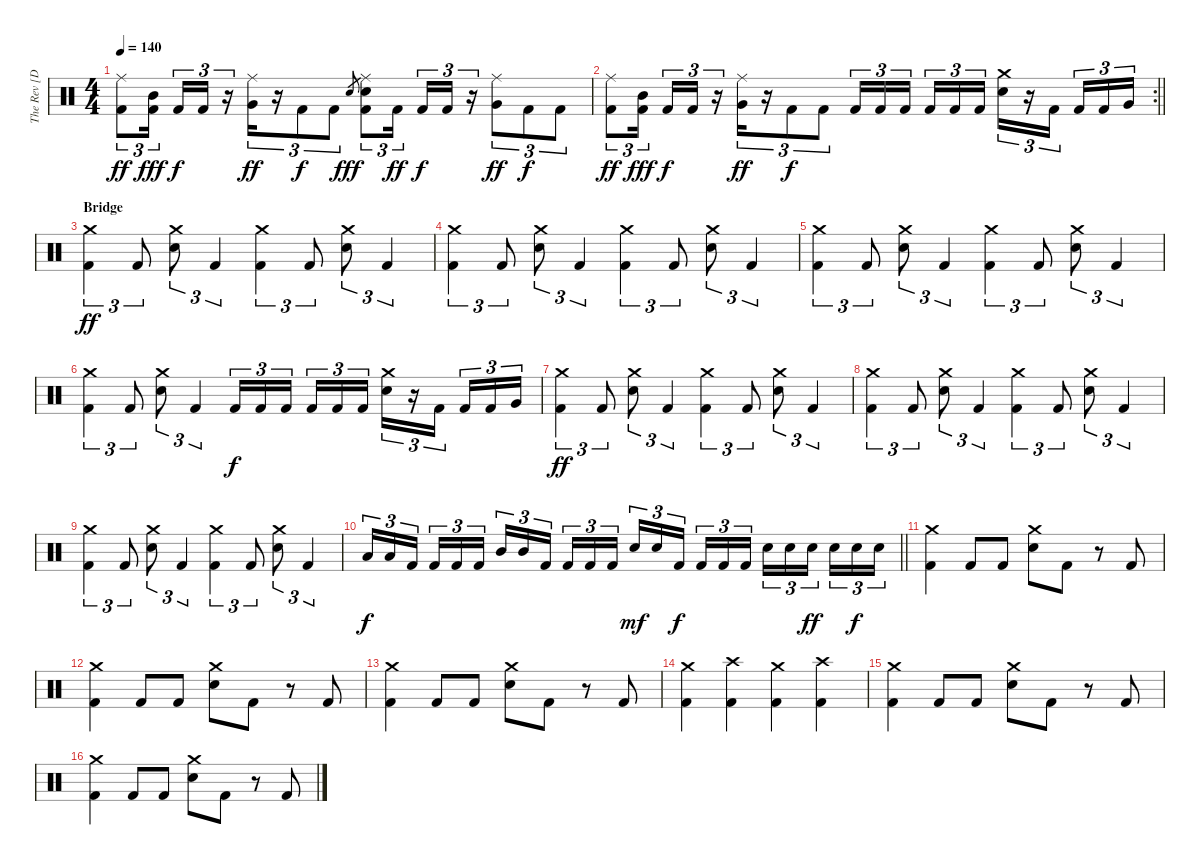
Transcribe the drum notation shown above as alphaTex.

\track ("The Rev [Drum]" "The Rev [D") {instrument percussion}
\staff {score}
\articulation defaults
\ts (4 4)
\tempo 140
\clef neutral
\ks c
("Ride (middle)" "Kick (hit) 2").8{tu (3 2) dy ff} ("Mid Tom (hit)" "Kick (hit) 2").16{tu (3 2) dy fff beam splitsecondary} "Kick (hit) 2".16{tu (3 2) dy f} "Kick (hit) 2".16{tu (3 2)} r.16{tu (3 2)} ("Ride (middle)" "Very Low Tom (hit)").16{tu (3 2) dy ff} r.16{tu (3 2)} "Kick (hit) 2".8{tu (3 2) dy f} "Kick (hit) 2".8{tu (3 2)} "Snare (hit) 2".8{gr dy fff} ("Ride (middle)" "Snare (hit) 2" "Kick (hit) 2").8{tu (3 2)} "Kick (hit) 2".16{tu (3 2) dy ff beam splitsecondary} "Kick (hit) 2".16{tu (3 2) dy f} "Kick (hit) 2".16{tu (3 2)} r.16{tu (3 2)} ("Ride (middle)" "Very Low Tom (hit)").8{tu (3 2) dy ff} "Kick (hit) 2".8{tu (3 2) dy f} "Kick (hit) 2".8{tu (3 2)} |
\rc 2
\barLineRight lightlight
("Ride (middle)" "Kick (hit) 2").8{tu (3 2) dy ff} ("Mid Tom (hit)" "Kick (hit) 2").16{tu (3 2) dy fff beam splitsecondary} "Kick (hit) 2".16{tu (3 2) dy f} "Kick (hit) 2".16{tu (3 2)} r.16{tu (3 2)} ("Ride (middle)" "Very Low Tom (hit)").16{tu (3 2) dy ff} r.16{tu (3 2)} "Kick (hit) 2".8{tu (3 2) dy f} "Kick (hit) 2".8{tu (3 2)} "Kick (hit) 2".16{tu (3 2)} "Kick (hit) 2".16{tu (3 2)} "Kick (hit) 2".16{tu (3 2) beam splitsecondary} "Kick (hit) 2".16{tu (3 2)} "Kick (hit) 2".16{tu (3 2)} "Kick (hit) 2".16{tu (3 2)} ("Crash medium (hit)" "Snare (hit) 2").16{tu (3 2)} r.16{tu (3 2)} "Kick (hit) 2".16{tu (3 2) beam splitsecondary} "Kick (hit) 2".16{tu (3 2)} "Kick (hit) 2".16{tu (3 2)} "Very Low Tom (hit)".16{tu (3 2)} |
\section ("" "Bridge")
("Crash medium (hit)" "Kick (hit) 2").4{tu (3 2) dy ff} "Kick (hit) 2".8{tu (3 2)} ("Crash medium (hit)" "Snare (hit) 2").8{tu (3 2)} "Kick (hit) 2".4{tu (3 2)} ("Crash medium (hit)" "Kick (hit) 2").4{tu (3 2)} "Kick (hit) 2".8{tu (3 2)} ("Crash medium (hit)" "Snare (hit) 2").8{tu (3 2)} "Kick (hit) 2".4{tu (3 2)} |
("Crash medium (hit)" "Kick (hit) 2").4{tu (3 2)} "Kick (hit) 2".8{tu (3 2)} ("Crash medium (hit)" "Snare (hit) 2").8{tu (3 2)} "Kick (hit) 2".4{tu (3 2)} ("Crash medium (hit)" "Kick (hit) 2").4{tu (3 2)} "Kick (hit) 2".8{tu (3 2)} ("Crash medium (hit)" "Snare (hit) 2").8{tu (3 2)} "Kick (hit) 2".4{tu (3 2)} |
("Crash medium (hit)" "Kick (hit) 2").4{tu (3 2)} "Kick (hit) 2".8{tu (3 2)} ("Crash medium (hit)" "Snare (hit) 2").8{tu (3 2)} "Kick (hit) 2".4{tu (3 2)} ("Crash medium (hit)" "Kick (hit) 2").4{tu (3 2)} "Kick (hit) 2".8{tu (3 2)} ("Crash medium (hit)" "Snare (hit) 2").8{tu (3 2)} "Kick (hit) 2".4{tu (3 2)} |
("Crash medium (hit)" "Kick (hit) 2").4{tu (3 2)} "Kick (hit) 2".8{tu (3 2)} ("Crash medium (hit)" "Snare (hit) 2").8{tu (3 2)} "Kick (hit) 2".4{tu (3 2)} "Kick (hit) 2".16{tu (3 2) dy f} "Kick (hit) 2".16{tu (3 2)} "Kick (hit) 2".16{tu (3 2) beam splitsecondary} "Kick (hit) 2".16{tu (3 2)} "Kick (hit) 2".16{tu (3 2)} "Kick (hit) 2".16{tu (3 2)} ("Crash medium (hit)" "Snare (hit) 2").16{tu (3 2)} r.16{tu (3 2)} "Kick (hit) 2".16{tu (3 2) beam splitsecondary} "Kick (hit) 2".16{tu (3 2)} "Kick (hit) 2".16{tu (3 2)} "Very Low Tom (hit)".16{tu (3 2)} |
("Crash medium (hit)" "Kick (hit) 2").4{tu (3 2) dy ff} "Kick (hit) 2".8{tu (3 2)} ("Crash medium (hit)" "Snare (hit) 2").8{tu (3 2)} "Kick (hit) 2".4{tu (3 2)} ("Crash medium (hit)" "Kick (hit) 2").4{tu (3 2)} "Kick (hit) 2".8{tu (3 2)} ("Crash medium (hit)" "Snare (hit) 2").8{tu (3 2)} "Kick (hit) 2".4{tu (3 2)} |
("Crash medium (hit)" "Kick (hit) 2").4{tu (3 2)} "Kick (hit) 2".8{tu (3 2)} ("Crash medium (hit)" "Snare (hit) 2").8{tu (3 2)} "Kick (hit) 2".4{tu (3 2)} ("Crash medium (hit)" "Kick (hit) 2").4{tu (3 2)} "Kick (hit) 2".8{tu (3 2)} ("Crash medium (hit)" "Snare (hit) 2").8{tu (3 2)} "Kick (hit) 2".4{tu (3 2)} |
("Crash medium (hit)" "Kick (hit) 2").4{tu (3 2)} "Kick (hit) 2".8{tu (3 2)} ("Crash medium (hit)" "Snare (hit) 2").8{tu (3 2)} "Kick (hit) 2".4{tu (3 2)} ("Crash medium (hit)" "Kick (hit) 2").4{tu (3 2)} "Kick (hit) 2".8{tu (3 2)} ("Crash medium (hit)" "Snare (hit) 2").8{tu (3 2)} "Kick (hit) 2".4{tu (3 2)} |
\barLineRight lightlight "Low Tom (hit)".16{tu (3 2) dy f} "Low Tom (hit)".16{tu (3 2)} "Kick (hit) 2".16{tu (3 2) beam splitsecondary} "Kick (hit) 2".16{tu (3 2)} "Kick (hit) 2".16{tu (3 2)} "Kick (hit) 2".16{tu (3 2)} "Mid Tom (hit)".16{tu (3 2)} "Mid Tom (hit)".16{tu (3 2)} "Kick (hit) 2".16{tu (3 2) beam splitsecondary} "Kick (hit) 2".16{tu (3 2)} "Kick (hit) 2".16{tu (3 2)} "Kick (hit) 2".16{tu (3 2)} "Snare (hit) 2".16{tu (3 2) dy mf} "Snare (hit) 2".16{tu (3 2)} "Kick (hit) 2".16{tu (3 2) dy f beam splitsecondary} "Kick (hit) 2".16{tu (3 2)} "Kick (hit) 2".16{tu (3 2)} "Kick (hit) 2".16{tu (3 2)} "Snare (hit) 2".16{tu (3 2)} "Snare (hit) 2".16{tu (3 2)} "Snare (hit) 2".16{tu (3 2) dy ff beam splitsecondary} "Snare (hit) 2".16{tu (3 2)} "Snare (hit) 2".16{tu (3 2) dy f} "Snare (hit) 2".16{tu (3 2)}
|
("Crash medium (hit)" "Kick (hit) 2").4 "Kick (hit) 2".8 "Kick (hit) 2".8 ("Crash medium (hit)" "Snare (hit) 2").8 "Kick (hit) 2".8 r.8 "Kick (hit) 2".8 |
("Crash medium (hit)" "Kick (hit) 2").4 "Kick (hit) 2".8 "Kick (hit) 2".8 ("Crash medium (hit)" "Snare (hit) 2").8 "Kick (hit) 2".8 r.8 "Kick (hit) 2".8 |
("Crash medium (hit)" "Kick (hit) 2").4 "Kick (hit) 2".8 "Kick (hit) 2".8 ("Crash medium (hit)" "Snare (hit) 2").8 "Kick (hit) 2".8 r.8 "Kick (hit) 2".8 |
("Crash medium (hit)" "Kick (hit) 2").4 ("Crash high (hit)" "Kick (hit) 2").4 ("Crash medium (hit)" "Kick (hit) 2").4 ("Crash high (hit)" "Kick (hit) 2").4 |
("Crash medium (hit)" "Kick (hit) 2").4 "Kick (hit) 2".8 "Kick (hit) 2".8 ("Crash medium (hit)" "Snare (hit) 2").8 "Kick (hit) 2".8 r.8 "Kick (hit) 2".8 |
("Crash medium (hit)" "Kick (hit) 2").4 "Kick (hit) 2".8 "Kick (hit) 2".8 ("Crash medium (hit)" "Snare (hit) 2").8 "Kick (hit) 2".8 r.8 "Kick (hit) 2".8
